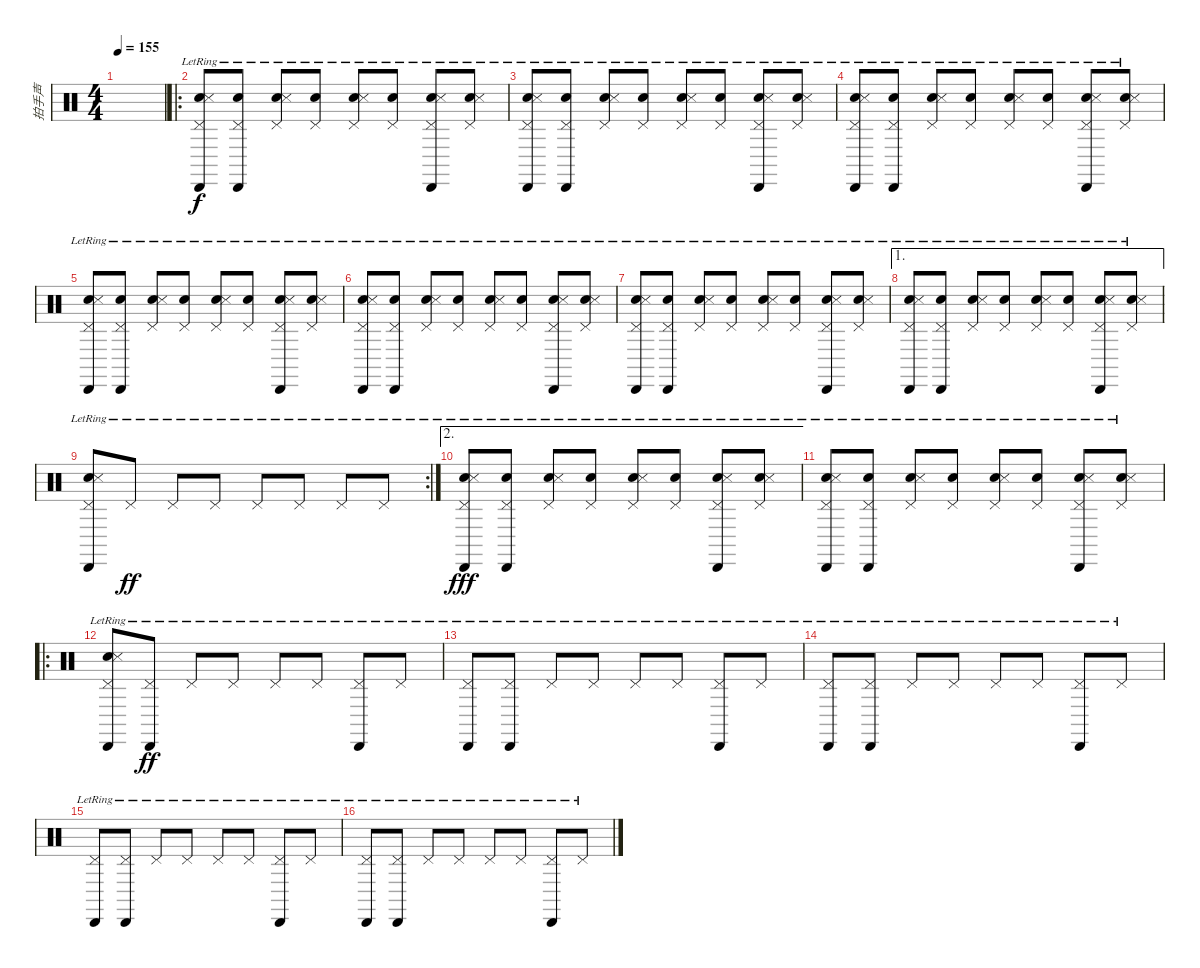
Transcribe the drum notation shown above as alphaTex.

\track ("拍手声" "拍手声") {instrument percussion}
\staff {score}
\articulation defaults
\ts (4 4)
\tempo 155
\clef neutral
\ks c
|
\ro
("Pedal Hi-Hat (hit)"{lr} "Cabasa (hit)"{lr} "Hand Clap (hit)"{lr} "Snare (side stick) 3"{lr}).8 ("Pedal Hi-Hat (hit)"{lr} "Cabasa (hit)"{lr} "Hand Clap (hit)"{lr}).8 ("Pedal Hi-Hat (hit)"{lr} "Hand Clap (hit)"{lr} "Snare (side stick) 3"{lr}).8 ("Pedal Hi-Hat (hit)"{lr} "Hand Clap (hit)"{lr}).8 ("Pedal Hi-Hat (hit)"{lr} "Hand Clap (hit)"{lr} "Snare (side stick) 3"{lr}).8 ("Pedal Hi-Hat (hit)"{lr} "Hand Clap (hit)"{lr}).8 ("Pedal Hi-Hat (hit)"{lr} "Cabasa (hit)"{lr} "Hand Clap (hit)"{lr} "Snare (side stick) 3"{lr}).8 ("Pedal Hi-Hat (hit)"{lr} "Hand Clap (hit)"{lr} "Snare (side stick) 3"{lr}).8 |
("Pedal Hi-Hat (hit)"{lr} "Cabasa (hit)"{lr} "Hand Clap (hit)"{lr} "Snare (side stick) 3"{lr}).8 ("Pedal Hi-Hat (hit)"{lr} "Cabasa (hit)"{lr} "Hand Clap (hit)"{lr}).8 ("Pedal Hi-Hat (hit)"{lr} "Hand Clap (hit)"{lr} "Snare (side stick) 3"{lr}).8 ("Pedal Hi-Hat (hit)"{lr} "Hand Clap (hit)"{lr}).8 ("Pedal Hi-Hat (hit)"{lr} "Hand Clap (hit)"{lr} "Snare (side stick) 3"{lr}).8 ("Pedal Hi-Hat (hit)"{lr} "Hand Clap (hit)"{lr}).8 ("Pedal Hi-Hat (hit)"{lr} "Cabasa (hit)"{lr} "Hand Clap (hit)"{lr} "Snare (side stick) 3"{lr}).8 ("Pedal Hi-Hat (hit)"{lr} "Hand Clap (hit)"{lr} "Snare (side stick) 3"{lr}).8 |
("Pedal Hi-Hat (hit)"{lr} "Cabasa (hit)"{lr} "Hand Clap (hit)"{lr} "Snare (side stick) 3"{lr}).8 ("Pedal Hi-Hat (hit)"{lr} "Cabasa (hit)"{lr} "Hand Clap (hit)"{lr}).8 ("Pedal Hi-Hat (hit)"{lr} "Hand Clap (hit)"{lr} "Snare (side stick) 3"{lr}).8 ("Pedal Hi-Hat (hit)"{lr} "Hand Clap (hit)"{lr}).8 ("Pedal Hi-Hat (hit)"{lr} "Hand Clap (hit)"{lr} "Snare (side stick) 3"{lr}).8 ("Pedal Hi-Hat (hit)"{lr} "Hand Clap (hit)"{lr}).8 ("Pedal Hi-Hat (hit)"{lr} "Cabasa (hit)"{lr} "Hand Clap (hit)"{lr} "Snare (side stick) 3"{lr}).8 ("Pedal Hi-Hat (hit)"{lr} "Hand Clap (hit)"{lr} "Snare (side stick) 3"{lr}).8 |
("Pedal Hi-Hat (hit)"{lr} "Cabasa (hit)"{lr} "Hand Clap (hit)"{lr} "Snare (side stick) 3"{lr}).8 ("Pedal Hi-Hat (hit)"{lr} "Cabasa (hit)"{lr} "Hand Clap (hit)"{lr}).8 ("Pedal Hi-Hat (hit)"{lr} "Hand Clap (hit)"{lr} "Snare (side stick) 3"{lr}).8 ("Pedal Hi-Hat (hit)"{lr} "Hand Clap (hit)"{lr}).8 ("Pedal Hi-Hat (hit)"{lr} "Hand Clap (hit)"{lr} "Snare (side stick) 3"{lr}).8 ("Pedal Hi-Hat (hit)"{lr} "Hand Clap (hit)"{lr}).8 ("Pedal Hi-Hat (hit)"{lr} "Cabasa (hit)"{lr} "Hand Clap (hit)"{lr} "Snare (side stick) 3"{lr}).8 ("Pedal Hi-Hat (hit)"{lr} "Hand Clap (hit)"{lr} "Snare (side stick) 3"{lr}).8 |
("Pedal Hi-Hat (hit)"{lr} "Cabasa (hit)"{lr} "Hand Clap (hit)"{lr} "Snare (side stick) 3"{lr}).8 ("Pedal Hi-Hat (hit)"{lr} "Cabasa (hit)"{lr} "Hand Clap (hit)"{lr}).8 ("Pedal Hi-Hat (hit)"{lr} "Hand Clap (hit)"{lr} "Snare (side stick) 3"{lr}).8 ("Pedal Hi-Hat (hit)"{lr} "Hand Clap (hit)"{lr}).8 ("Pedal Hi-Hat (hit)"{lr} "Hand Clap (hit)"{lr} "Snare (side stick) 3"{lr}).8 ("Pedal Hi-Hat (hit)"{lr} "Hand Clap (hit)"{lr}).8 ("Pedal Hi-Hat (hit)"{lr} "Cabasa (hit)"{lr} "Hand Clap (hit)"{lr} "Snare (side stick) 3"{lr}).8 ("Pedal Hi-Hat (hit)"{lr} "Hand Clap (hit)"{lr} "Snare (side stick) 3"{lr}).8 |
("Pedal Hi-Hat (hit)"{lr} "Cabasa (hit)"{lr} "Hand Clap (hit)"{lr} "Snare (side stick) 3"{lr}).8 ("Pedal Hi-Hat (hit)"{lr} "Cabasa (hit)"{lr} "Hand Clap (hit)"{lr}).8 ("Pedal Hi-Hat (hit)"{lr} "Hand Clap (hit)"{lr} "Snare (side stick) 3"{lr}).8 ("Pedal Hi-Hat (hit)"{lr} "Hand Clap (hit)"{lr}).8 ("Pedal Hi-Hat (hit)"{lr} "Hand Clap (hit)"{lr} "Snare (side stick) 3"{lr}).8 ("Pedal Hi-Hat (hit)"{lr} "Hand Clap (hit)"{lr}).8 ("Pedal Hi-Hat (hit)"{lr} "Cabasa (hit)"{lr} "Hand Clap (hit)"{lr} "Snare (side stick) 3"{lr}).8 ("Pedal Hi-Hat (hit)"{lr} "Hand Clap (hit)"{lr} "Snare (side stick) 3"{lr}).8 |
\ae 1
("Pedal Hi-Hat (hit)"{lr} "Cabasa (hit)"{lr} "Hand Clap (hit)"{lr} "Snare (side stick) 3"{lr}).8 ("Pedal Hi-Hat (hit)"{lr} "Cabasa (hit)"{lr} "Hand Clap (hit)"{lr}).8 ("Pedal Hi-Hat (hit)"{lr} "Hand Clap (hit)"{lr} "Snare (side stick) 3"{lr}).8 ("Pedal Hi-Hat (hit)"{lr} "Hand Clap (hit)"{lr}).8 ("Pedal Hi-Hat (hit)"{lr} "Hand Clap (hit)"{lr} "Snare (side stick) 3"{lr}).8 ("Pedal Hi-Hat (hit)"{lr} "Hand Clap (hit)"{lr}).8 ("Pedal Hi-Hat (hit)"{lr} "Cabasa (hit)"{lr} "Hand Clap (hit)"{lr} "Snare (side stick) 3"{lr}).8 ("Pedal Hi-Hat (hit)"{lr} "Hand Clap (hit)"{lr} "Snare (side stick) 3"{lr}).8 |
\rc 2
("Pedal Hi-Hat (hit)"{lr} "Cabasa (hit)"{lr} "Hand Clap (hit)"{lr} "Snare (side stick) 3"{lr}).8 "Pedal Hi-Hat (hit)"{lr}.8{dy ff} "Pedal Hi-Hat (hit)"{lr}.8 "Pedal Hi-Hat (hit)"{lr}.8 "Pedal Hi-Hat (hit)"{lr}.8 "Pedal Hi-Hat (hit)"{lr}.8 "Pedal Hi-Hat (hit)"{lr}.8 "Pedal Hi-Hat (hit)"{lr}.8 |
\ae 2
("Pedal Hi-Hat (hit)"{lr} "Cabasa (hit)"{lr} "Hand Clap (hit)"{lr} "Snare (side stick) 3"{lr}).8{dy fff} ("Pedal Hi-Hat (hit)"{lr} "Cabasa (hit)"{lr} "Hand Clap (hit)"{lr}).8 ("Pedal Hi-Hat (hit)"{lr} "Hand Clap (hit)"{lr} "Snare (side stick) 3"{lr}).8 ("Pedal Hi-Hat (hit)"{lr} "Hand Clap (hit)"{lr}).8 ("Pedal Hi-Hat (hit)"{lr} "Hand Clap (hit)"{lr} "Snare (side stick) 3"{lr}).8 ("Pedal Hi-Hat (hit)"{lr} "Hand Clap (hit)"{lr}).8 ("Pedal Hi-Hat (hit)"{lr} "Cabasa (hit)"{lr} "Hand Clap (hit)"{lr} "Snare (side stick) 3"{lr}).8 ("Pedal Hi-Hat (hit)"{lr} "Hand Clap (hit)"{lr} "Snare (side stick) 3"{lr}).8 |
("Pedal Hi-Hat (hit)"{lr} "Cabasa (hit)"{lr} "Hand Clap (hit)"{lr} "Snare (side stick) 3"{lr}).8 ("Pedal Hi-Hat (hit)"{lr} "Cabasa (hit)"{lr} "Hand Clap (hit)"{lr}).8 ("Pedal Hi-Hat (hit)"{lr} "Hand Clap (hit)"{lr} "Snare (side stick) 3"{lr}).8 ("Pedal Hi-Hat (hit)"{lr} "Hand Clap (hit)"{lr}).8 ("Pedal Hi-Hat (hit)"{lr} "Hand Clap (hit)"{lr} "Snare (side stick) 3"{lr}).8 ("Pedal Hi-Hat (hit)"{lr} "Hand Clap (hit)"{lr}).8 ("Pedal Hi-Hat (hit)"{lr} "Cabasa (hit)"{lr} "Hand Clap (hit)"{lr} "Snare (side stick) 3"{lr}).8 ("Pedal Hi-Hat (hit)"{lr} "Hand Clap (hit)"{lr} "Snare (side stick) 3"{lr}).8 |
\ro
("Pedal Hi-Hat (hit)"{lr} "Cabasa (hit)"{lr} "Hand Clap (hit)"{lr} "Snare (side stick) 3"{lr}).8 ("Pedal Hi-Hat (hit)"{lr} "Cabasa (hit)"{lr}).8{dy ff} "Pedal Hi-Hat (hit)"{lr}.8 "Pedal Hi-Hat (hit)"{lr}.8 "Pedal Hi-Hat (hit)"{lr}.8 "Pedal Hi-Hat (hit)"{lr}.8 ("Pedal Hi-Hat (hit)"{lr} "Cabasa (hit)"{lr}).8 "Pedal Hi-Hat (hit)"{lr}.8 |
("Pedal Hi-Hat (hit)"{lr} "Cabasa (hit)"{lr}).8 ("Pedal Hi-Hat (hit)"{lr} "Cabasa (hit)"{lr}).8 "Pedal Hi-Hat (hit)"{lr}.8 "Pedal Hi-Hat (hit)"{lr}.8 "Pedal Hi-Hat (hit)"{lr}.8 "Pedal Hi-Hat (hit)"{lr}.8 ("Pedal Hi-Hat (hit)"{lr} "Cabasa (hit)"{lr}).8 "Pedal Hi-Hat (hit)"{lr}.8 |
("Pedal Hi-Hat (hit)"{lr} "Cabasa (hit)"{lr}).8 ("Pedal Hi-Hat (hit)"{lr} "Cabasa (hit)"{lr}).8 "Pedal Hi-Hat (hit)"{lr}.8 "Pedal Hi-Hat (hit)"{lr}.8 "Pedal Hi-Hat (hit)"{lr}.8 "Pedal Hi-Hat (hit)"{lr}.8 ("Pedal Hi-Hat (hit)"{lr} "Cabasa (hit)"{lr}).8 "Pedal Hi-Hat (hit)"{lr}.8 |
("Pedal Hi-Hat (hit)"{lr} "Cabasa (hit)"{lr}).8 ("Pedal Hi-Hat (hit)"{lr} "Cabasa (hit)"{lr}).8 "Pedal Hi-Hat (hit)"{lr}.8 "Pedal Hi-Hat (hit)"{lr}.8 "Pedal Hi-Hat (hit)"{lr}.8 "Pedal Hi-Hat (hit)"{lr}.8 ("Pedal Hi-Hat (hit)"{lr} "Cabasa (hit)"{lr}).8 "Pedal Hi-Hat (hit)"{lr}.8 |
("Pedal Hi-Hat (hit)"{lr} "Cabasa (hit)"{lr}).8 ("Pedal Hi-Hat (hit)"{lr} "Cabasa (hit)"{lr}).8 "Pedal Hi-Hat (hit)"{lr}.8 "Pedal Hi-Hat (hit)"{lr}.8 "Pedal Hi-Hat (hit)"{lr}.8 "Pedal Hi-Hat (hit)"{lr}.8 ("Pedal Hi-Hat (hit)"{lr} "Cabasa (hit)"{lr}).8 "Pedal Hi-Hat (hit)"{lr}.8
